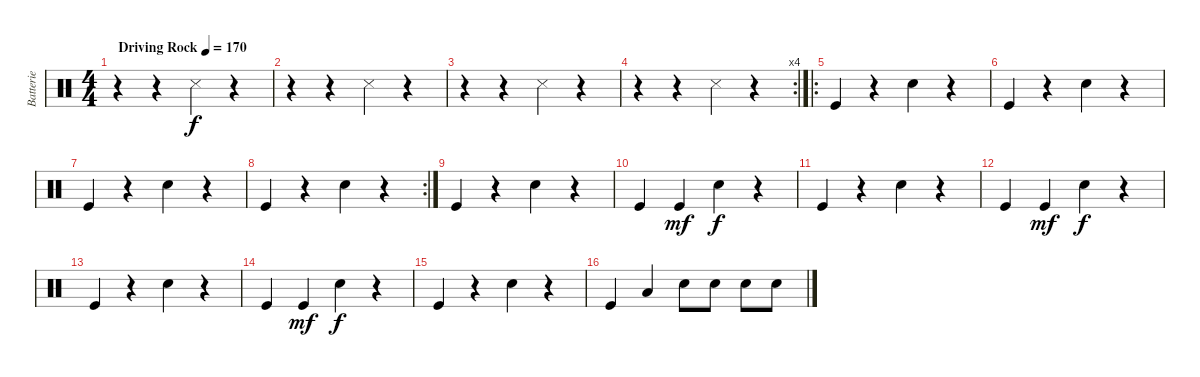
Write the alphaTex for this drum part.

\track ("Batterie" "Batterie") {instrument percussion}
\staff {score}
\articulation defaults
\ts (4 4)
\tempo (170 "Driving Rock")
\clef neutral
\ks c
r.4{dy f} r.4 "Snare (side stick) 3".4 r.4 |
r.4 r.4 "Snare (side stick) 3".4 r.4 |
r.4 r.4 "Snare (side stick) 3".4 r.4 |
\rc 4
r.4 r.4 "Snare (side stick) 3".4 r.4 |
\ro "Kick (hit)".4
r.4 "Snare (hit) 2".4 r.4 |
"Kick (hit)".4 r.4 "Snare (hit) 2".4 r.4 |
"Kick (hit)".4 r.4 "Snare (hit) 2".4 r.4 |
\rc 2 "Kick (hit)".4
r.4 "Snare (hit) 2".4 r.4 |
"Kick (hit)".4 r.4 "Snare (hit) 2".4 r.4 |
"Kick (hit)".4 "Kick (hit)".4{dy mf} "Snare (hit) 2".4{dy f} r.4 |
"Kick (hit)".4 r.4 "Snare (hit) 2".4 r.4 |
"Kick (hit)".4 "Kick (hit)".4{dy mf} "Snare (hit) 2".4{dy f} r.4 |
"Kick (hit)".4 r.4 "Snare (hit) 2".4 r.4 |
"Kick (hit)".4 "Kick (hit)".4{dy mf} "Snare (hit) 2".4{dy f} r.4 |
"Kick (hit)".4 r.4 "Snare (hit) 2".4 r.4 |
"Kick (hit)".4 "Low Tom (hit)".4 "Snare (hit) 2".8 "Snare (hit) 2".8 "Snare (hit) 2".8 "Snare (hit) 2".8
